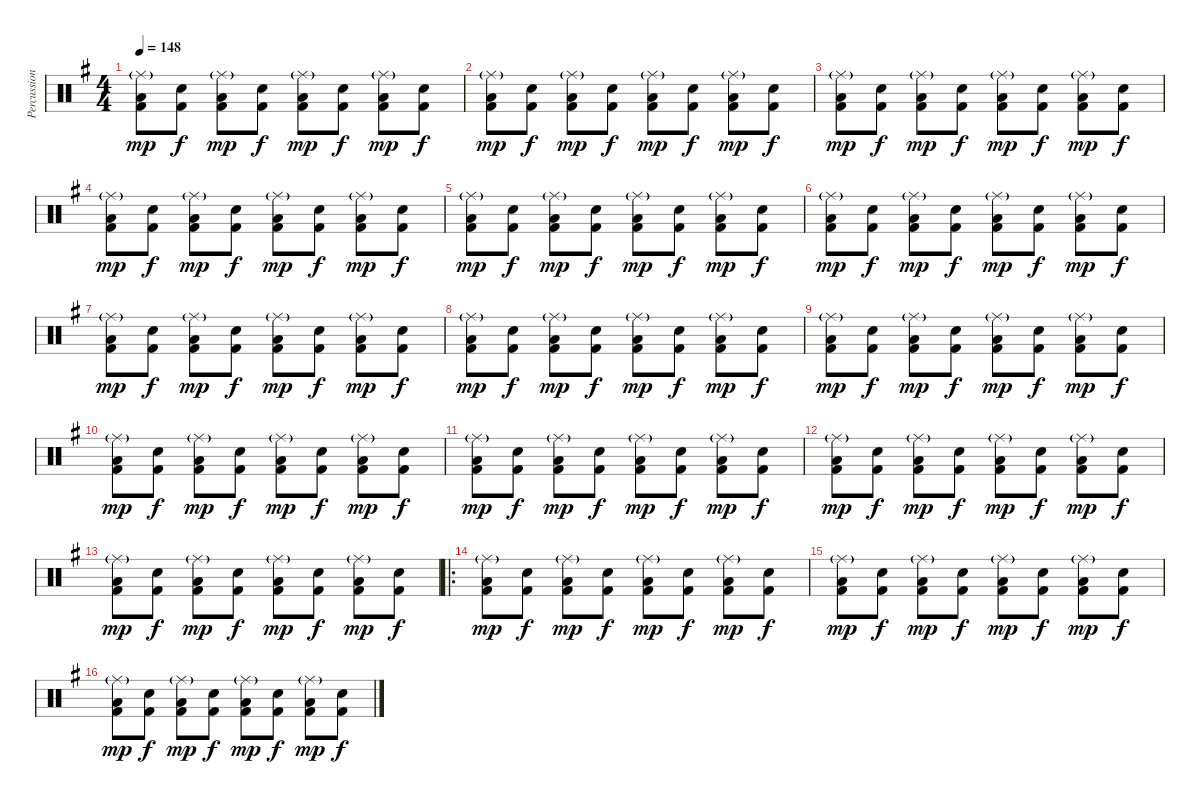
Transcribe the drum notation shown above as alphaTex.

\track ("Percussions" "Percussion") {instrument percussion}
\staff {score}
\articulation defaults
\ts (4 4)
\tempo 148
\clef neutral
\ks g
("Ride (middle)"{g} "Low Floor Tom (hit)" "Kick (hit) 2").8{dy mp} ("Electric Snare (hit)" "Kick (hit) 2").8{dy f} ("Ride (middle)"{g} "Low Floor Tom (hit)" "Kick (hit) 2").8{dy mp} ("Electric Snare (hit)" "Kick (hit) 2").8{dy f} ("Ride (middle)"{g} "Low Floor Tom (hit)" "Kick (hit) 2").8{dy mp} ("Electric Snare (hit)" "Kick (hit) 2").8{dy f} ("Ride (middle)"{g} "Low Floor Tom (hit)" "Kick (hit) 2").8{dy mp} ("Electric Snare (hit)" "Kick (hit) 2").8{dy f} |
("Ride (middle)"{g} "Low Floor Tom (hit)" "Kick (hit) 2").8{dy mp} ("Electric Snare (hit)" "Kick (hit) 2").8{dy f} ("Ride (middle)"{g} "Low Floor Tom (hit)" "Kick (hit) 2").8{dy mp} ("Electric Snare (hit)" "Kick (hit) 2").8{dy f} ("Ride (middle)"{g} "Low Floor Tom (hit)" "Kick (hit) 2").8{dy mp} ("Electric Snare (hit)" "Kick (hit) 2").8{dy f} ("Ride (middle)"{g} "Low Floor Tom (hit)" "Kick (hit) 2").8{dy mp} ("Electric Snare (hit)" "Kick (hit) 2").8{dy f} |
("Ride (middle)"{g} "Low Floor Tom (hit)" "Kick (hit) 2").8{dy mp} ("Electric Snare (hit)" "Kick (hit) 2").8{dy f} ("Ride (middle)"{g} "Low Floor Tom (hit)" "Kick (hit) 2").8{dy mp} ("Electric Snare (hit)" "Kick (hit) 2").8{dy f} ("Ride (middle)"{g} "Low Floor Tom (hit)" "Kick (hit) 2").8{dy mp} ("Electric Snare (hit)" "Kick (hit) 2").8{dy f} ("Ride (middle)"{g} "Low Floor Tom (hit)" "Kick (hit) 2").8{dy mp} ("Electric Snare (hit)" "Kick (hit) 2").8{dy f} |
("Ride (middle)"{g} "Low Floor Tom (hit)" "Kick (hit) 2").8{dy mp} ("Electric Snare (hit)" "Kick (hit) 2").8{dy f} ("Ride (middle)"{g} "Low Floor Tom (hit)" "Kick (hit) 2").8{dy mp} ("Electric Snare (hit)" "Kick (hit) 2").8{dy f} ("Ride (middle)"{g} "Low Floor Tom (hit)" "Kick (hit) 2").8{dy mp} ("Electric Snare (hit)" "Kick (hit) 2").8{dy f} ("Ride (middle)"{g} "Low Floor Tom (hit)" "Kick (hit) 2").8{dy mp} ("Electric Snare (hit)" "Kick (hit) 2").8{dy f} |
("Ride (middle)"{g} "Low Floor Tom (hit)" "Kick (hit) 2").8{dy mp} ("Electric Snare (hit)" "Kick (hit) 2").8{dy f} ("Ride (middle)"{g} "Low Floor Tom (hit)" "Kick (hit) 2").8{dy mp} ("Electric Snare (hit)" "Kick (hit) 2").8{dy f} ("Ride (middle)"{g} "Low Floor Tom (hit)" "Kick (hit) 2").8{dy mp} ("Electric Snare (hit)" "Kick (hit) 2").8{dy f} ("Ride (middle)"{g} "Low Floor Tom (hit)" "Kick (hit) 2").8{dy mp} ("Electric Snare (hit)" "Kick (hit) 2").8{dy f} |
("Ride (middle)"{g} "Low Floor Tom (hit)" "Kick (hit) 2").8{dy mp} ("Electric Snare (hit)" "Kick (hit) 2").8{dy f} ("Ride (middle)"{g} "Low Floor Tom (hit)" "Kick (hit) 2").8{dy mp} ("Electric Snare (hit)" "Kick (hit) 2").8{dy f} ("Ride (middle)"{g} "Low Floor Tom (hit)" "Kick (hit) 2").8{dy mp} ("Electric Snare (hit)" "Kick (hit) 2").8{dy f} ("Ride (middle)"{g} "Low Floor Tom (hit)" "Kick (hit) 2").8{dy mp} ("Electric Snare (hit)" "Kick (hit) 2").8{dy f} |
("Ride (middle)"{g} "Low Floor Tom (hit)" "Kick (hit) 2").8{dy mp} ("Electric Snare (hit)" "Kick (hit) 2").8{dy f} ("Ride (middle)"{g} "Low Floor Tom (hit)" "Kick (hit) 2").8{dy mp} ("Electric Snare (hit)" "Kick (hit) 2").8{dy f} ("Ride (middle)"{g} "Low Floor Tom (hit)" "Kick (hit) 2").8{dy mp} ("Electric Snare (hit)" "Kick (hit) 2").8{dy f} ("Ride (middle)"{g} "Low Floor Tom (hit)" "Kick (hit) 2").8{dy mp} ("Electric Snare (hit)" "Kick (hit) 2").8{dy f} |
("Ride (middle)"{g} "Low Floor Tom (hit)" "Kick (hit) 2").8{dy mp} ("Electric Snare (hit)" "Kick (hit) 2").8{dy f} ("Ride (middle)"{g} "Low Floor Tom (hit)" "Kick (hit) 2").8{dy mp} ("Electric Snare (hit)" "Kick (hit) 2").8{dy f} ("Ride (middle)"{g} "Low Floor Tom (hit)" "Kick (hit) 2").8{dy mp} ("Electric Snare (hit)" "Kick (hit) 2").8{dy f} ("Ride (middle)"{g} "Low Floor Tom (hit)" "Kick (hit) 2").8{dy mp} ("Electric Snare (hit)" "Kick (hit) 2").8{dy f} |
("Ride (middle)"{g} "Low Floor Tom (hit)" "Kick (hit) 2").8{dy mp} ("Electric Snare (hit)" "Kick (hit) 2").8{dy f} ("Ride (middle)"{g} "Low Floor Tom (hit)" "Kick (hit) 2").8{dy mp} ("Electric Snare (hit)" "Kick (hit) 2").8{dy f} ("Ride (middle)"{g} "Low Floor Tom (hit)" "Kick (hit) 2").8{dy mp} ("Electric Snare (hit)" "Kick (hit) 2").8{dy f} ("Ride (middle)"{g} "Low Floor Tom (hit)" "Kick (hit) 2").8{dy mp} ("Electric Snare (hit)" "Kick (hit) 2").8{dy f} |
("Ride (middle)"{g} "Low Floor Tom (hit)" "Kick (hit) 2").8{dy mp} ("Electric Snare (hit)" "Kick (hit) 2").8{dy f} ("Ride (middle)"{g} "Low Floor Tom (hit)" "Kick (hit) 2").8{dy mp} ("Electric Snare (hit)" "Kick (hit) 2").8{dy f} ("Ride (middle)"{g} "Low Floor Tom (hit)" "Kick (hit) 2").8{dy mp} ("Electric Snare (hit)" "Kick (hit) 2").8{dy f} ("Ride (middle)"{g} "Low Floor Tom (hit)" "Kick (hit) 2").8{dy mp} ("Electric Snare (hit)" "Kick (hit) 2").8{dy f} |
("Ride (middle)"{g} "Low Floor Tom (hit)" "Kick (hit) 2").8{dy mp} ("Electric Snare (hit)" "Kick (hit) 2").8{dy f} ("Ride (middle)"{g} "Low Floor Tom (hit)" "Kick (hit) 2").8{dy mp} ("Electric Snare (hit)" "Kick (hit) 2").8{dy f} ("Ride (middle)"{g} "Low Floor Tom (hit)" "Kick (hit) 2").8{dy mp} ("Electric Snare (hit)" "Kick (hit) 2").8{dy f} ("Ride (middle)"{g} "Low Floor Tom (hit)" "Kick (hit) 2").8{dy mp} ("Electric Snare (hit)" "Kick (hit) 2").8{dy f} |
("Ride (middle)"{g} "Low Floor Tom (hit)" "Kick (hit) 2").8{dy mp} ("Electric Snare (hit)" "Kick (hit) 2").8{dy f} ("Ride (middle)"{g} "Low Floor Tom (hit)" "Kick (hit) 2").8{dy mp} ("Electric Snare (hit)" "Kick (hit) 2").8{dy f} ("Ride (middle)"{g} "Low Floor Tom (hit)" "Kick (hit) 2").8{dy mp} ("Electric Snare (hit)" "Kick (hit) 2").8{dy f} ("Ride (middle)"{g} "Low Floor Tom (hit)" "Kick (hit) 2").8{dy mp} ("Electric Snare (hit)" "Kick (hit) 2").8{dy f} |
("Ride (middle)"{g} "Low Floor Tom (hit)" "Kick (hit) 2").8{dy mp} ("Electric Snare (hit)" "Kick (hit) 2").8{dy f} ("Ride (middle)"{g} "Low Floor Tom (hit)" "Kick (hit) 2").8{dy mp} ("Electric Snare (hit)" "Kick (hit) 2").8{dy f} ("Ride (middle)"{g} "Low Floor Tom (hit)" "Kick (hit) 2").8{dy mp} ("Electric Snare (hit)" "Kick (hit) 2").8{dy f} ("Ride (middle)"{g} "Low Floor Tom (hit)" "Kick (hit) 2").8{dy mp} ("Electric Snare (hit)" "Kick (hit) 2").8{dy f} |
\ro
("Ride (middle)"{g} "Low Floor Tom (hit)" "Kick (hit) 2").8{dy mp} ("Electric Snare (hit)" "Kick (hit) 2").8{dy f} ("Ride (middle)"{g} "Low Floor Tom (hit)" "Kick (hit) 2").8{dy mp} ("Electric Snare (hit)" "Kick (hit) 2").8{dy f} ("Ride (middle)"{g} "Low Floor Tom (hit)" "Kick (hit) 2").8{dy mp} ("Electric Snare (hit)" "Kick (hit) 2").8{dy f} ("Ride (middle)"{g} "Low Floor Tom (hit)" "Kick (hit) 2").8{dy mp} ("Electric Snare (hit)" "Kick (hit) 2").8{dy f} |
("Ride (middle)"{g} "Low Floor Tom (hit)" "Kick (hit) 2").8{dy mp} ("Electric Snare (hit)" "Kick (hit) 2").8{dy f} ("Ride (middle)"{g} "Low Floor Tom (hit)" "Kick (hit) 2").8{dy mp} ("Electric Snare (hit)" "Kick (hit) 2").8{dy f} ("Ride (middle)"{g} "Low Floor Tom (hit)" "Kick (hit) 2").8{dy mp} ("Electric Snare (hit)" "Kick (hit) 2").8{dy f} ("Ride (middle)"{g} "Low Floor Tom (hit)" "Kick (hit) 2").8{dy mp} ("Electric Snare (hit)" "Kick (hit) 2").8{dy f} |
("Ride (middle)"{g} "Low Floor Tom (hit)" "Kick (hit) 2").8{dy mp} ("Electric Snare (hit)" "Kick (hit) 2").8{dy f} ("Ride (middle)"{g} "Low Floor Tom (hit)" "Kick (hit) 2").8{dy mp} ("Electric Snare (hit)" "Kick (hit) 2").8{dy f} ("Ride (middle)"{g} "Low Floor Tom (hit)" "Kick (hit) 2").8{dy mp} ("Electric Snare (hit)" "Kick (hit) 2").8{dy f} ("Ride (middle)"{g} "Low Floor Tom (hit)" "Kick (hit) 2").8{dy mp} ("Electric Snare (hit)" "Kick (hit) 2").8{dy f}
